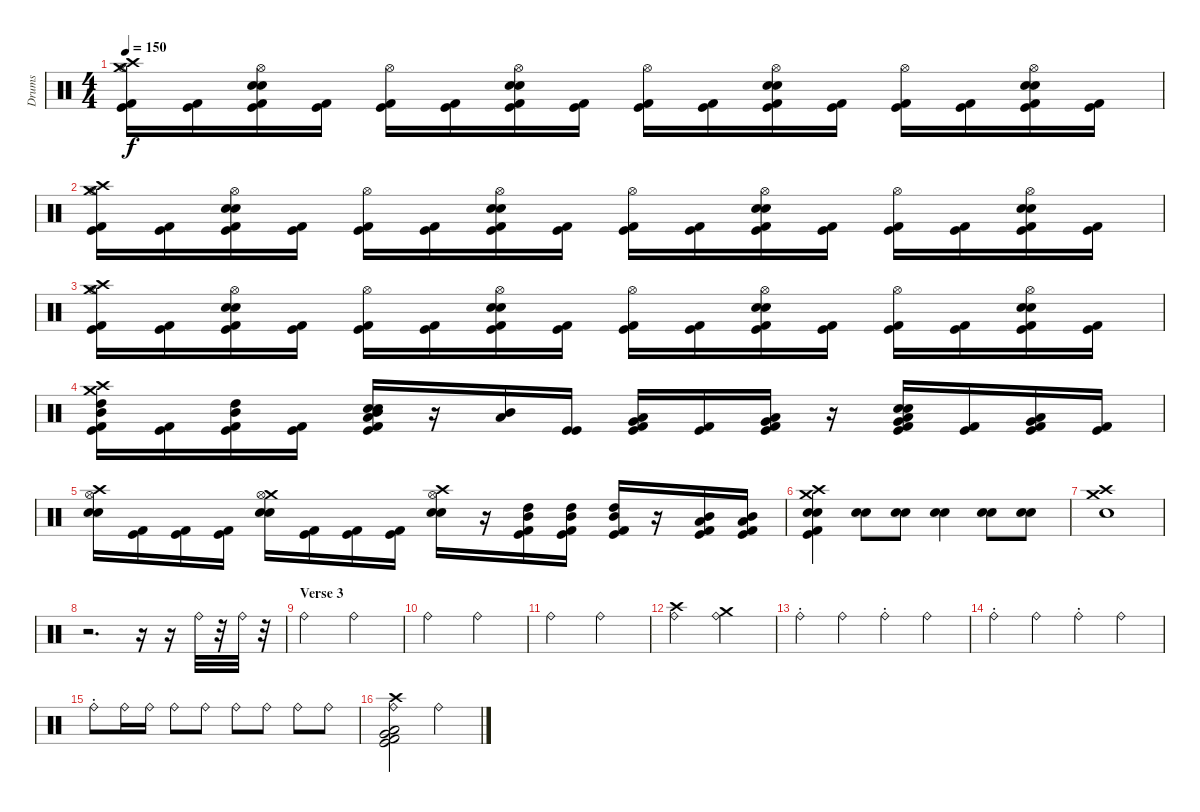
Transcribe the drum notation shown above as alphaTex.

\track ("Drums" "Drums") {instrument percussion}
\staff {score}
\articulation defaults
\ts (4 4)
\tempo 150
\clef neutral
\ks c
("Crash high (hit)" "Hi-Hat (open)" "Crash medium (hit)" "Kick (hit)" "Kick (hit) 2").16{dy f} ("Kick (hit)" "Kick (hit) 2").16 ("Hi-Hat (open)" "Electric Snare (hit)" "Snare (hit) 2" "Kick (hit)" "Kick (hit) 2").16 ("Kick (hit)" "Kick (hit) 2").16 ("Hi-Hat (open)" "Kick (hit)" "Kick (hit) 2").16 ("Kick (hit)" "Kick (hit) 2").16 ("Hi-Hat (open)" "Electric Snare (hit)" "Snare (hit) 2" "Kick (hit)" "Kick (hit) 2").16 ("Kick (hit)" "Kick (hit) 2").16 ("Hi-Hat (open)" "Kick (hit)" "Kick (hit) 2").16 ("Kick (hit)" "Kick (hit) 2").16 ("Hi-Hat (open)" "Electric Snare (hit)" "Snare (hit) 2" "Kick (hit)" "Kick (hit) 2").16 ("Kick (hit)" "Kick (hit) 2").16 ("Hi-Hat (open)" "Kick (hit)" "Kick (hit) 2").16 ("Kick (hit)" "Kick (hit) 2").16 ("Hi-Hat (open)" "Electric Snare (hit)" "Snare (hit) 2" "Kick (hit)" "Kick (hit) 2").16 ("Kick (hit)" "Kick (hit) 2").16 |
("Crash high (hit)" "Hi-Hat (open)" "Crash medium (hit)" "Kick (hit)" "Kick (hit) 2").16 ("Kick (hit)" "Kick (hit) 2").16 ("Hi-Hat (open)" "Electric Snare (hit)" "Snare (hit) 2" "Kick (hit)" "Kick (hit) 2").16 ("Kick (hit)" "Kick (hit) 2").16 ("Hi-Hat (open)" "Kick (hit)" "Kick (hit) 2").16 ("Kick (hit)" "Kick (hit) 2").16 ("Hi-Hat (open)" "Electric Snare (hit)" "Snare (hit) 2" "Kick (hit)" "Kick (hit) 2").16 ("Kick (hit)" "Kick (hit) 2").16 ("Hi-Hat (open)" "Kick (hit)" "Kick (hit) 2").16 ("Kick (hit)" "Kick (hit) 2").16 ("Hi-Hat (open)" "Electric Snare (hit)" "Snare (hit) 2" "Kick (hit)" "Kick (hit) 2").16 ("Kick (hit)" "Kick (hit) 2").16 ("Hi-Hat (open)" "Kick (hit)" "Kick (hit) 2").16 ("Kick (hit)" "Kick (hit) 2").16 ("Hi-Hat (open)" "Electric Snare (hit)" "Snare (hit) 2" "Kick (hit)" "Kick (hit) 2").16 ("Kick (hit)" "Kick (hit) 2").16 |
("Crash high (hit)" "Hi-Hat (open)" "Crash medium (hit)" "Kick (hit)" "Kick (hit) 2").16 ("Kick (hit)" "Kick (hit) 2").16 ("Hi-Hat (open)" "Electric Snare (hit)" "Snare (hit) 2" "Kick (hit)" "Kick (hit) 2").16 ("Kick (hit)" "Kick (hit) 2").16 ("Hi-Hat (open)" "Kick (hit)" "Kick (hit) 2").16 ("Kick (hit)" "Kick (hit) 2").16 ("Hi-Hat (open)" "Electric Snare (hit)" "Snare (hit) 2" "Kick (hit)" "Kick (hit) 2").16 ("Kick (hit)" "Kick (hit) 2").16 ("Hi-Hat (open)" "Kick (hit)" "Kick (hit) 2").16 ("Kick (hit)" "Kick (hit) 2").16 ("Hi-Hat (open)" "Electric Snare (hit)" "Snare (hit) 2" "Kick (hit)" "Kick (hit) 2").16 ("Kick (hit)" "Kick (hit) 2").16 ("Hi-Hat (open)" "Kick (hit)" "Kick (hit) 2").16 ("Kick (hit)" "Kick (hit) 2").16 ("Hi-Hat (open)" "Electric Snare (hit)" "Snare (hit) 2" "Kick (hit)" "Kick (hit) 2").16 ("Kick (hit)" "Kick (hit) 2").16 |
("Crash high (hit)" "High Tom (hit)" "Crash medium (hit)" "Mid Tom (hit)" "Kick (hit) 2" "Kick (hit)").16 ("Kick (hit) 2" "Kick (hit)").16 ("Mid Tom (hit)" "High Tom (hit)" "Kick (hit) 2" "Kick (hit)").16 ("Kick (hit) 2" "Kick (hit)").16 ("Low Tom (hit)" "Mid Tom (hit)" "Electric Snare (hit)" "Snare (hit) 2" "Kick (hit) 2" "Kick (hit)").16 r.16 ("Low Tom (hit)" "Mid Tom (hit)").16 ("Kick (hit)" "Kick (hit)").16 ("Very Low Tom (hit)" "Low Tom (hit)" "Kick (hit) 2" "Kick (hit)").16 ("Kick (hit) 2" "Kick (hit)").16 ("Very Low Tom (hit)" "Low Tom (hit)" "Kick (hit) 2" "Kick (hit)").16 r.16 ("Low Floor Tom (hit)" "Very Low Tom (hit)" "Electric Snare (hit)" "Snare (hit) 2" "Kick (hit) 2" "Kick (hit)").16 ("Kick (hit) 2" "Kick (hit)").16 ("Low Floor Tom (hit)" "Very Low Tom (hit)" "Kick (hit) 2" "Kick (hit)").16 ("Kick (hit) 2" "Kick (hit)").16 |
("Crash high (hit)" "Hi-Hat (open)" "Electric Snare (hit)" "Snare (hit) 2").16 ("Kick (hit) 2" "Kick (hit)").16 ("Kick (hit) 2" "Kick (hit)").16 ("Kick (hit) 2" "Kick (hit)").16 ("Crash medium (hit)" "Hi-Hat (open)" "Electric Snare (hit)" "Snare (hit) 2").16 ("Kick (hit) 2" "Kick (hit)").16 ("Kick (hit) 2" "Kick (hit)").16 ("Kick (hit) 2" "Kick (hit)").16 ("Crash high (hit)" "Hi-Hat (open)" "Electric Snare (hit)" "Snare (hit) 2").16 r.16 ("High Tom (hit)" "Mid Tom (hit)" "Kick (hit) 2" "Kick (hit)").16 ("High Tom (hit)" "Mid Tom (hit)" "Kick (hit) 2" "Kick (hit)").16 ("High Tom (hit)" "Mid Tom (hit)" "Kick (hit) 2" "Kick (hit)").16 r.16 ("Mid Tom (hit)" "Low Tom (hit)" "Kick (hit) 2" "Kick (hit)").16 ("Mid Tom (hit)" "Low Tom (hit)" "Kick (hit) 2" "Kick (hit)").16 |
("Crash high (hit)" "Electric Snare (hit)" "Snare (hit) 2" "Crash medium (hit)" "Kick (hit) 2" "Kick (hit)").4 ("Electric Snare (hit)" "Snare (hit) 2").8 ("Electric Snare (hit)" "Snare (hit) 2").8 ("Electric Snare (hit)" "Snare (hit) 2").4 ("Electric Snare (hit)" "Snare (hit) 2").8 ("Electric Snare (hit)" "Snare (hit) 2").8 |
("Crash high (hit)" "Crash medium (hit)" "Electric Snare (hit)").1 |
r.2{d} r.16 r.16 "Ride (bell)".32 r.32 "Ride (bell)".32 r.32 |
\section ("" "Verse 3")
"Ride (bell)".2 "Ride (bell)".2 |
"Ride (bell)".2 "Ride (bell)".2 |
"Ride (bell)".2 "Ride (bell)".2 |
("Crash high (hit)" "Ride (bell)").2 ("Crash medium (hit)" "Ride (bell)").2 |
"Ride (bell)"{st}.4 "Ride (bell)".4 "Ride (bell)"{st}.4 "Ride (bell)".4 |
"Ride (bell)"{st}.4 "Ride (bell)".4 "Ride (bell)"{st}.4 "Ride (bell)".4 |
"Ride (bell)"{st}.8 "Ride (bell)".16 "Ride (bell)".16 "Ride (bell)".8 "Ride (bell)".8 "Ride (bell)".8 "Ride (bell)".8 "Ride (bell)".8 "Ride (bell)".8 |
("Crash high (hit)" "Ride (bell)" "Low Tom (hit)" "Very Low Tom (hit)" "Kick (hit) 2" "Kick (hit)").2 "Ride (bell)".2
